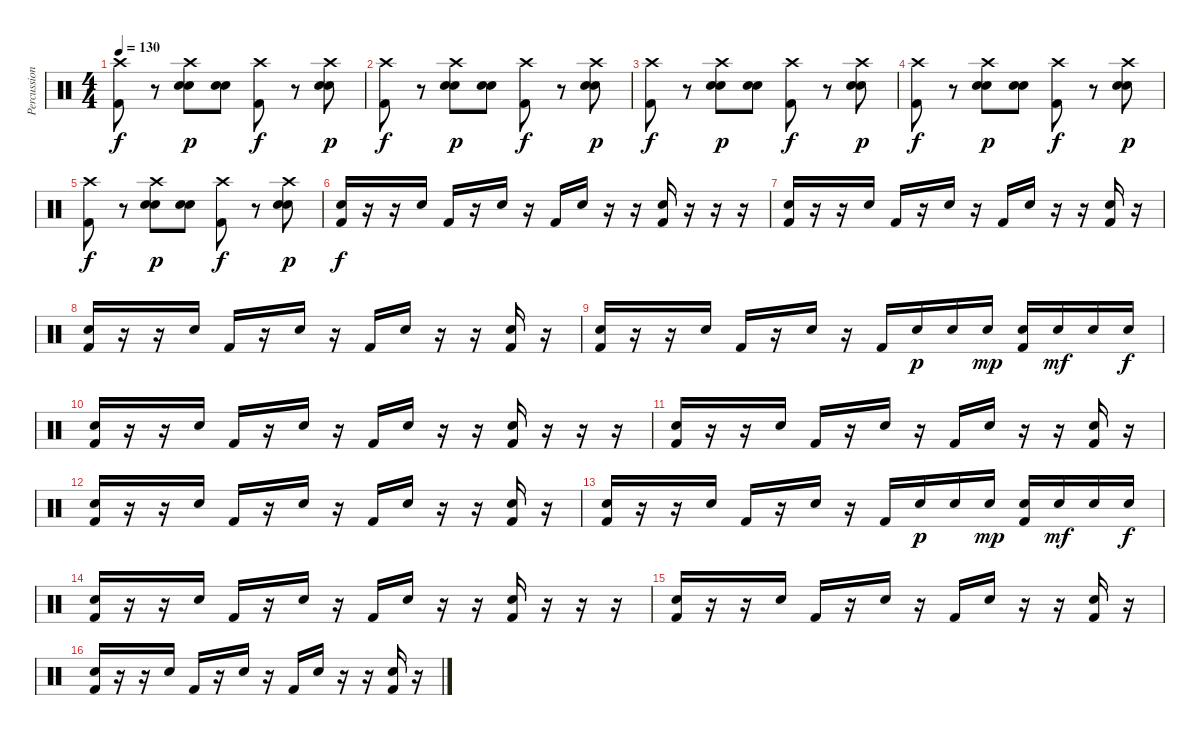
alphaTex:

\track ("Percussion" "Percussion") {instrument percussion}
\staff {score}
\articulation defaults
\ts (4 4)
\tempo 130
\clef neutral
\ks c
("Kick (hit) 2" "Crash high (hit)").8{dy f} r.8 ("Electric Snare (hit)" "Crash high (hit)" "Snare (hit) 2").8{dy p} ("Electric Snare (hit)" "Snare (hit) 2").8 ("Kick (hit) 2" "Crash high (hit)").8{dy f} r.8 ("Electric Snare (hit)" "Crash high (hit)" "Snare (hit) 2").8{dy p} |
("Kick (hit) 2" "Crash high (hit)").8{dy f} r.8 ("Electric Snare (hit)" "Crash high (hit)" "Snare (hit) 2").8{dy p} ("Electric Snare (hit)" "Snare (hit) 2").8 ("Kick (hit) 2" "Crash high (hit)").8{dy f} r.8 ("Electric Snare (hit)" "Crash high (hit)" "Snare (hit) 2").8{dy p} |
("Kick (hit) 2" "Crash high (hit)").8{dy f} r.8 ("Electric Snare (hit)" "Crash high (hit)" "Snare (hit) 2").8{dy p} ("Electric Snare (hit)" "Snare (hit) 2").8 ("Kick (hit) 2" "Crash high (hit)").8{dy f} r.8 ("Electric Snare (hit)" "Crash high (hit)" "Snare (hit) 2").8{dy p} |
("Kick (hit) 2" "Crash high (hit)").8{dy f} r.8 ("Electric Snare (hit)" "Crash high (hit)" "Snare (hit) 2").8{dy p} ("Electric Snare (hit)" "Snare (hit) 2").8 ("Kick (hit) 2" "Crash high (hit)").8{dy f} r.8 ("Electric Snare (hit)" "Crash high (hit)" "Snare (hit) 2").8{dy p} |
("Kick (hit) 2" "Crash high (hit)").8{dy f} r.8 ("Electric Snare (hit)" "Crash high (hit)" "Snare (hit) 2").8{dy p} ("Electric Snare (hit)" "Snare (hit) 2").8 ("Kick (hit) 2" "Crash high (hit)").8{dy f} r.8 ("Electric Snare (hit)" "Crash high (hit)" "Snare (hit) 2").8{dy p} |
("Electric Snare (hit)" "Kick (hit) 2").16{dy f} r.16 r.16 "Electric Snare (hit)".16 "Kick (hit) 2".16 r.16 "Electric Snare (hit)".16 r.16 "Kick (hit) 2".16 "Electric Snare (hit)".16 r.16 r.16 ("Electric Snare (hit)" "Kick (hit) 2").16 r.16 r.16 r.16 |
("Electric Snare (hit)" "Kick (hit) 2").16 r.16 r.16 "Electric Snare (hit)".16 "Kick (hit) 2".16 r.16 "Electric Snare (hit)".16 r.16 "Kick (hit) 2".16 "Electric Snare (hit)".16 r.16 r.16 ("Electric Snare (hit)" "Kick (hit) 2").16 r.16 |
("Electric Snare (hit)" "Kick (hit) 2").16 r.16 r.16 "Electric Snare (hit)".16 "Kick (hit) 2".16 r.16 "Electric Snare (hit)".16 r.16 "Kick (hit) 2".16 "Electric Snare (hit)".16 r.16 r.16 ("Electric Snare (hit)" "Kick (hit) 2").16 r.16 |
("Electric Snare (hit)" "Kick (hit) 2").16 r.16 r.16 "Electric Snare (hit)".16 "Kick (hit) 2".16 r.16 "Electric Snare (hit)".16 r.16 "Kick (hit) 2".16 "Electric Snare (hit)".16{dy p} "Electric Snare (hit)".16 "Electric Snare (hit)".16{dy mp} ("Electric Snare (hit)" "Kick (hit) 2").16 "Electric Snare (hit)".16{dy mf} "Electric Snare (hit)".16 "Electric Snare (hit)".16{dy f} |
("Electric Snare (hit)" "Kick (hit) 2").16 r.16 r.16 "Electric Snare (hit)".16 "Kick (hit) 2".16 r.16 "Electric Snare (hit)".16 r.16 "Kick (hit) 2".16 "Electric Snare (hit)".16 r.16 r.16 ("Electric Snare (hit)" "Kick (hit) 2").16 r.16 r.16 r.16 |
("Electric Snare (hit)" "Kick (hit) 2").16 r.16 r.16 "Electric Snare (hit)".16 "Kick (hit) 2".16 r.16 "Electric Snare (hit)".16 r.16 "Kick (hit) 2".16 "Electric Snare (hit)".16 r.16 r.16 ("Electric Snare (hit)" "Kick (hit) 2").16 r.16 |
("Electric Snare (hit)" "Kick (hit) 2").16 r.16 r.16 "Electric Snare (hit)".16 "Kick (hit) 2".16 r.16 "Electric Snare (hit)".16 r.16 "Kick (hit) 2".16 "Electric Snare (hit)".16 r.16 r.16 ("Electric Snare (hit)" "Kick (hit) 2").16 r.16 |
("Electric Snare (hit)" "Kick (hit) 2").16 r.16 r.16 "Electric Snare (hit)".16 "Kick (hit) 2".16 r.16 "Electric Snare (hit)".16 r.16 "Kick (hit) 2".16 "Electric Snare (hit)".16{dy p} "Electric Snare (hit)".16 "Electric Snare (hit)".16{dy mp} ("Electric Snare (hit)" "Kick (hit) 2").16 "Electric Snare (hit)".16{dy mf} "Electric Snare (hit)".16 "Electric Snare (hit)".16{dy f} |
("Electric Snare (hit)" "Kick (hit) 2").16 r.16 r.16 "Electric Snare (hit)".16 "Kick (hit) 2".16 r.16 "Electric Snare (hit)".16 r.16 "Kick (hit) 2".16 "Electric Snare (hit)".16 r.16 r.16 ("Electric Snare (hit)" "Kick (hit) 2").16 r.16 r.16 r.16 |
("Electric Snare (hit)" "Kick (hit) 2").16 r.16 r.16 "Electric Snare (hit)".16 "Kick (hit) 2".16 r.16 "Electric Snare (hit)".16 r.16 "Kick (hit) 2".16 "Electric Snare (hit)".16 r.16 r.16 ("Electric Snare (hit)" "Kick (hit) 2").16 r.16 |
("Electric Snare (hit)" "Kick (hit) 2").16 r.16 r.16 "Electric Snare (hit)".16 "Kick (hit) 2".16 r.16 "Electric Snare (hit)".16 r.16 "Kick (hit) 2".16 "Electric Snare (hit)".16 r.16 r.16 ("Electric Snare (hit)" "Kick (hit) 2").16 r.16
